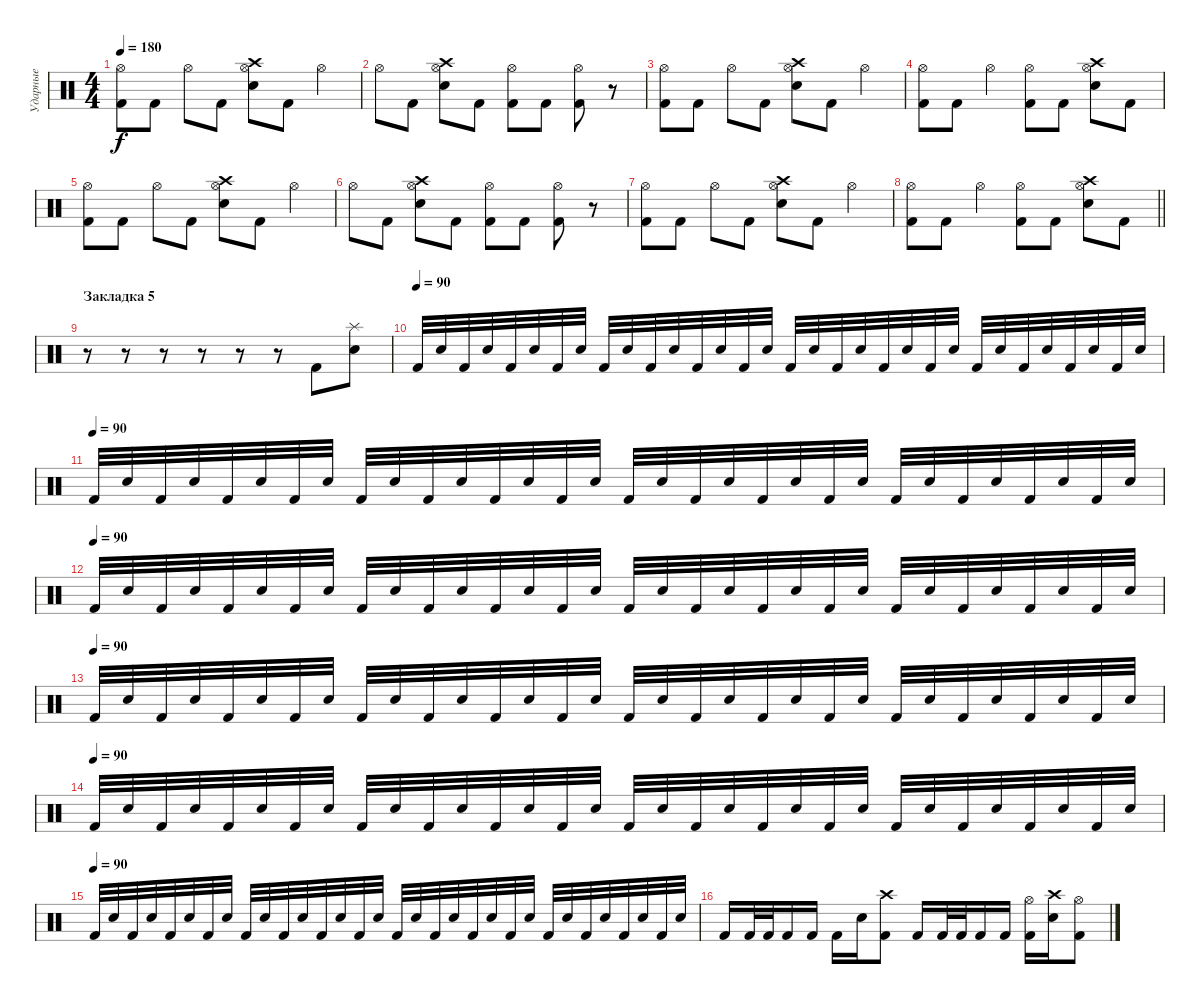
\track ("Ударные" "Ударные") {instrument percussion}
\staff {score}
\articulation defaults
\ts (4 4)
\tempo 180
\clef neutral
\ks c
("Kick (hit) 2" "Hi-Hat (open)").8{dy f} "Kick (hit) 2".8 "Hi-Hat (open)".8 "Kick (hit) 2".8 ("Electric Snare (hit)" "Crash high (hit)" "Hi-Hat (open)").8 "Kick (hit) 2".8 "Hi-Hat (open)".4 |
"Hi-Hat (open)".8 "Kick (hit) 2".8 ("Electric Snare (hit)" "Crash high (hit)" "Hi-Hat (open)").8 "Kick (hit) 2".8 ("Kick (hit) 2" "Hi-Hat (open)").8 "Kick (hit) 2".8 ("Kick (hit) 2" "Hi-Hat (open)").8 r.8 |
("Kick (hit) 2" "Hi-Hat (open)").8 "Kick (hit) 2".8 "Hi-Hat (open)".8 "Kick (hit) 2".8 ("Electric Snare (hit)" "Crash high (hit)" "Hi-Hat (open)").8 "Kick (hit) 2".8 "Hi-Hat (open)".4 |
("Kick (hit) 2" "Hi-Hat (open)").8 "Kick (hit) 2".8 "Hi-Hat (open)".4 ("Kick (hit) 2" "Hi-Hat (open)").8 "Kick (hit) 2".8 ("Electric Snare (hit)" "Crash high (hit)" "Hi-Hat (open)").8 "Kick (hit) 2".8 |
("Kick (hit) 2" "Hi-Hat (open)").8 "Kick (hit) 2".8 "Hi-Hat (open)".8 "Kick (hit) 2".8 ("Electric Snare (hit)" "Crash high (hit)" "Hi-Hat (open)").8 "Kick (hit) 2".8 "Hi-Hat (open)".4 |
"Hi-Hat (open)".8 "Kick (hit) 2".8 ("Electric Snare (hit)" "Crash high (hit)" "Hi-Hat (open)").8 "Kick (hit) 2".8 ("Kick (hit) 2" "Hi-Hat (open)").8 "Kick (hit) 2".8 ("Kick (hit) 2" "Hi-Hat (open)").8 r.8 |
("Kick (hit) 2" "Hi-Hat (open)").8 "Kick (hit) 2".8 "Hi-Hat (open)".8 "Kick (hit) 2".8 ("Electric Snare (hit)" "Crash high (hit)" "Hi-Hat (open)").8 "Kick (hit) 2".8 "Hi-Hat (open)".4 |
\barLineRight lightlight
("Kick (hit) 2" "Hi-Hat (open)").8 "Kick (hit) 2".8 "Hi-Hat (open)".4 ("Kick (hit) 2" "Hi-Hat (open)").8 "Kick (hit) 2".8 ("Electric Snare (hit)" "Crash high (hit)" "Hi-Hat (open)").8 "Kick (hit) 2".8 |
\section ("" "Закладка 5")
r.8 r.8 r.8 r.8 r.8 r.8 "Kick (hit) 2".8 ("Electric Snare (hit)" "Splash (hit)").8 |
\tempo (90)
"Kick (hit) 2".32 "Electric Snare (hit)".32 "Kick (hit) 2".32 "Electric Snare (hit)".32 "Kick (hit) 2".32 "Electric Snare (hit)".32 "Kick (hit) 2".32 "Electric Snare (hit)".32 "Kick (hit) 2".32 "Electric Snare (hit)".32 "Kick (hit) 2".32 "Electric Snare (hit)".32 "Kick (hit) 2".32 "Electric Snare (hit)".32 "Kick (hit) 2".32 "Electric Snare (hit)".32 "Kick (hit) 2".32 "Electric Snare (hit)".32 "Kick (hit) 2".32 "Electric Snare (hit)".32 "Kick (hit) 2".32 "Electric Snare (hit)".32 "Kick (hit) 2".32 "Electric Snare (hit)".32 "Kick (hit) 2".32 "Electric Snare (hit)".32 "Kick (hit) 2".32 "Electric Snare (hit)".32 "Kick (hit) 2".32 "Electric Snare (hit)".32 "Kick (hit) 2".32 "Electric Snare (hit)".32 |
\tempo (90)
"Kick (hit) 2".32 "Electric Snare (hit)".32 "Kick (hit) 2".32 "Electric Snare (hit)".32 "Kick (hit) 2".32 "Electric Snare (hit)".32 "Kick (hit) 2".32 "Electric Snare (hit)".32 "Kick (hit) 2".32 "Electric Snare (hit)".32 "Kick (hit) 2".32 "Electric Snare (hit)".32 "Kick (hit) 2".32 "Electric Snare (hit)".32 "Kick (hit) 2".32 "Electric Snare (hit)".32 "Kick (hit) 2".32 "Electric Snare (hit)".32 "Kick (hit) 2".32 "Electric Snare (hit)".32 "Kick (hit) 2".32 "Electric Snare (hit)".32 "Kick (hit) 2".32 "Electric Snare (hit)".32 "Kick (hit) 2".32 "Electric Snare (hit)".32 "Kick (hit) 2".32 "Electric Snare (hit)".32 "Kick (hit) 2".32 "Electric Snare (hit)".32 "Kick (hit) 2".32 "Electric Snare (hit)".32 |
\tempo (90)
"Kick (hit) 2".32 "Electric Snare (hit)".32 "Kick (hit) 2".32 "Electric Snare (hit)".32 "Kick (hit) 2".32 "Electric Snare (hit)".32 "Kick (hit) 2".32 "Electric Snare (hit)".32 "Kick (hit) 2".32 "Electric Snare (hit)".32 "Kick (hit) 2".32 "Electric Snare (hit)".32 "Kick (hit) 2".32 "Electric Snare (hit)".32 "Kick (hit) 2".32 "Electric Snare (hit)".32 "Kick (hit) 2".32 "Electric Snare (hit)".32 "Kick (hit) 2".32 "Electric Snare (hit)".32 "Kick (hit) 2".32 "Electric Snare (hit)".32 "Kick (hit) 2".32 "Electric Snare (hit)".32 "Kick (hit) 2".32 "Electric Snare (hit)".32 "Kick (hit) 2".32 "Electric Snare (hit)".32 "Kick (hit) 2".32 "Electric Snare (hit)".32 "Kick (hit) 2".32 "Electric Snare (hit)".32 |
\tempo (90)
"Kick (hit) 2".32 "Electric Snare (hit)".32 "Kick (hit) 2".32 "Electric Snare (hit)".32 "Kick (hit) 2".32 "Electric Snare (hit)".32 "Kick (hit) 2".32 "Electric Snare (hit)".32 "Kick (hit) 2".32 "Electric Snare (hit)".32 "Kick (hit) 2".32 "Electric Snare (hit)".32 "Kick (hit) 2".32 "Electric Snare (hit)".32 "Kick (hit) 2".32 "Electric Snare (hit)".32 "Kick (hit) 2".32 "Electric Snare (hit)".32 "Kick (hit) 2".32 "Electric Snare (hit)".32 "Kick (hit) 2".32 "Electric Snare (hit)".32 "Kick (hit) 2".32 "Electric Snare (hit)".32 "Kick (hit) 2".32 "Electric Snare (hit)".32 "Kick (hit) 2".32 "Electric Snare (hit)".32 "Kick (hit) 2".32 "Electric Snare (hit)".32 "Kick (hit) 2".32 "Electric Snare (hit)".32 |
\tempo (90)
"Kick (hit) 2".32 "Electric Snare (hit)".32 "Kick (hit) 2".32 "Electric Snare (hit)".32 "Kick (hit) 2".32 "Electric Snare (hit)".32 "Kick (hit) 2".32 "Electric Snare (hit)".32 "Kick (hit) 2".32 "Electric Snare (hit)".32 "Kick (hit) 2".32 "Electric Snare (hit)".32 "Kick (hit) 2".32 "Electric Snare (hit)".32 "Kick (hit) 2".32 "Electric Snare (hit)".32 "Kick (hit) 2".32 "Electric Snare (hit)".32 "Kick (hit) 2".32 "Electric Snare (hit)".32 "Kick (hit) 2".32 "Electric Snare (hit)".32 "Kick (hit) 2".32 "Electric Snare (hit)".32 "Kick (hit) 2".32 "Electric Snare (hit)".32 "Kick (hit) 2".32 "Electric Snare (hit)".32 "Kick (hit) 2".32 "Electric Snare (hit)".32 "Kick (hit) 2".32 "Electric Snare (hit)".32 |
\tempo (90)
"Kick (hit) 2".32 "Electric Snare (hit)".32 "Kick (hit) 2".32 "Electric Snare (hit)".32 "Kick (hit) 2".32 "Electric Snare (hit)".32 "Kick (hit) 2".32 "Electric Snare (hit)".32 "Kick (hit) 2".32 "Electric Snare (hit)".32 "Kick (hit) 2".32 "Electric Snare (hit)".32 "Kick (hit) 2".32 "Electric Snare (hit)".32 "Kick (hit) 2".32 "Electric Snare (hit)".32 "Kick (hit) 2".32 "Electric Snare (hit)".32 "Kick (hit) 2".32 "Electric Snare (hit)".32 "Kick (hit) 2".32 "Electric Snare (hit)".32 "Kick (hit) 2".32 "Electric Snare (hit)".32 "Kick (hit) 2".32 "Electric Snare (hit)".32 "Kick (hit) 2".32 "Electric Snare (hit)".32 "Kick (hit) 2".32 "Electric Snare (hit)".32 "Kick (hit) 2".32 "Electric Snare (hit)".32 |
"Kick (hit) 2".16 "Kick (hit) 2".32 "Kick (hit) 2".32 "Kick (hit) 2".16 "Kick (hit) 2".16 "Kick (hit) 2".16 "Electric Snare (hit)".16 ("Crash high (hit)" "Kick (hit) 2").8 "Kick (hit) 2".16 "Kick (hit) 2".32 "Kick (hit) 2".32 "Kick (hit) 2".16 "Kick (hit) 2".16 ("Hi-Hat (open)" "Kick (hit) 2").16 ("Crash high (hit)" "Electric Snare (hit)").16 ("Hi-Hat (open)" "Kick (hit) 2").8
